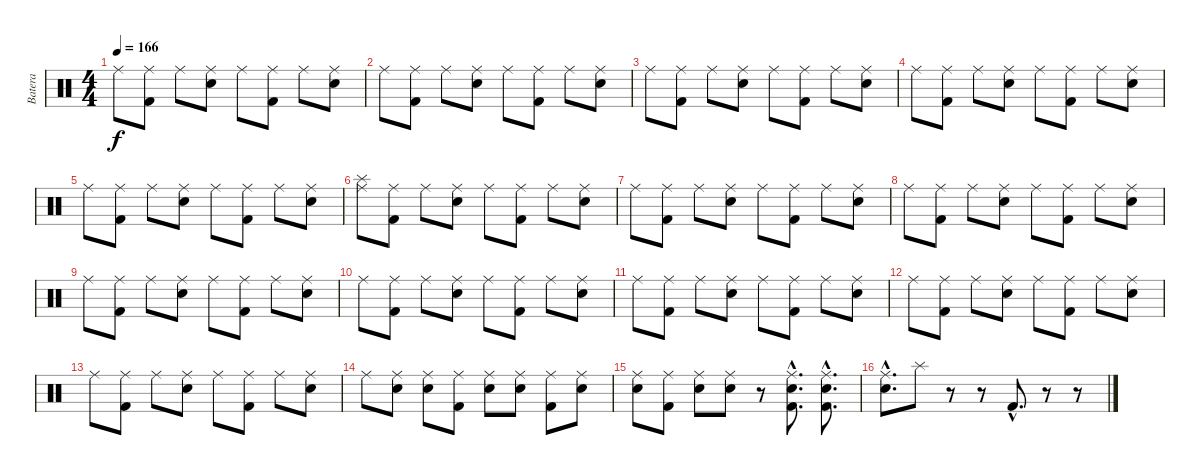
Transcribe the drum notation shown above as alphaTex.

\track ("Batera" "Batera") {instrument percussion}
\staff {score}
\articulation defaults
\ts (4 4)
\tempo 166
\clef neutral
\ks c "Ride (middle)".8{dy f}
("Ride (middle)" "Kick (hit) 2").8 "Ride (middle)".8 ("Ride (middle)" "Snare (hit) 2").8 "Ride (middle)".8 ("Ride (middle)" "Kick (hit) 2").8 "Ride (middle)".8 ("Ride (middle)" "Snare (hit) 2").8 |
"Ride (middle)".8 ("Ride (middle)" "Kick (hit) 2").8 "Ride (middle)".8 ("Ride (middle)" "Snare (hit) 2").8 "Ride (middle)".8 ("Ride (middle)" "Kick (hit) 2").8 "Ride (middle)".8 ("Ride (middle)" "Snare (hit) 2").8 |
"Ride (middle)".8 ("Ride (middle)" "Kick (hit) 2").8 "Ride (middle)".8 ("Ride (middle)" "Snare (hit) 2").8 "Ride (middle)".8 ("Ride (middle)" "Kick (hit) 2").8 "Ride (middle)".8 ("Ride (middle)" "Snare (hit) 2").8 |
"Ride (middle)".8 ("Ride (middle)" "Kick (hit) 2").8 "Ride (middle)".8 ("Ride (middle)" "Snare (hit) 2").8 "Ride (middle)".8 ("Ride (middle)" "Kick (hit) 2").8 "Ride (middle)".8 ("Ride (middle)" "Snare (hit) 2").8 |
"Ride (middle)".8 ("Ride (middle)" "Kick (hit) 2").8 "Ride (middle)".8 ("Ride (middle)" "Snare (hit) 2").8 "Ride (middle)".8 ("Ride (middle)" "Kick (hit) 2").8 "Ride (middle)".8 ("Ride (middle)" "Snare (hit) 2").8 |
("Ride (middle)" "Splash (hit)").8 ("Ride (middle)" "Kick (hit) 2").8 "Ride (middle)".8 ("Ride (middle)" "Snare (hit) 2").8 "Ride (middle)".8 ("Ride (middle)" "Kick (hit) 2").8 "Ride (middle)".8 ("Ride (middle)" "Snare (hit) 2").8 |
"Ride (middle)".8 ("Ride (middle)" "Kick (hit) 2").8 "Ride (middle)".8 ("Ride (middle)" "Snare (hit) 2").8 "Ride (middle)".8 ("Ride (middle)" "Kick (hit) 2").8 "Ride (middle)".8 ("Ride (middle)" "Snare (hit) 2").8 |
"Ride (middle)".8 ("Ride (middle)" "Kick (hit) 2").8 "Ride (middle)".8 ("Ride (middle)" "Snare (hit) 2").8 "Ride (middle)".8 ("Ride (middle)" "Kick (hit) 2").8 "Ride (middle)".8 ("Ride (middle)" "Snare (hit) 2").8 |
"Ride (middle)".8 ("Ride (middle)" "Kick (hit) 2").8 "Ride (middle)".8 ("Ride (middle)" "Snare (hit) 2").8 "Ride (middle)".8 ("Ride (middle)" "Kick (hit) 2").8 "Ride (middle)".8 ("Ride (middle)" "Snare (hit) 2").8 |
"Ride (middle)".8 ("Ride (middle)" "Kick (hit) 2").8 "Ride (middle)".8 ("Ride (middle)" "Snare (hit) 2").8 "Ride (middle)".8 ("Ride (middle)" "Kick (hit) 2").8 "Ride (middle)".8 ("Ride (middle)" "Snare (hit) 2").8 |
"Ride (middle)".8 ("Ride (middle)" "Kick (hit) 2").8 "Ride (middle)".8 ("Ride (middle)" "Snare (hit) 2").8 "Ride (middle)".8 ("Ride (middle)" "Kick (hit) 2").8 "Ride (middle)".8 ("Ride (middle)" "Snare (hit) 2").8 |
"Ride (middle)".8 ("Ride (middle)" "Kick (hit) 2").8 "Ride (middle)".8 ("Ride (middle)" "Snare (hit) 2").8 "Ride (middle)".8 ("Ride (middle)" "Kick (hit) 2").8 "Ride (middle)".8 ("Ride (middle)" "Snare (hit) 2").8 |
"Ride (middle)".8 ("Ride (middle)" "Kick (hit) 2").8 "Ride (middle)".8 ("Ride (middle)" "Snare (hit) 2").8 "Ride (middle)".8 ("Ride (middle)" "Kick (hit) 2").8 "Ride (middle)".8 ("Ride (middle)" "Snare (hit) 2").8 |
"Ride (middle)".8 ("Ride (middle)" "Snare (hit) 2").8 ("Ride (middle)" "Snare (hit) 2").8 ("Ride (middle)" "Kick (hit) 2").8 ("Ride (middle)" "Snare (hit) 2").8 ("Ride (middle)" "Snare (hit) 2").8 ("Ride (middle)" "Kick (hit) 2").8 ("Ride (middle)" "Snare (hit) 2").8 |
("Ride (middle)" "Snare (hit) 2").8 ("Ride (middle)" "Kick (hit) 2").8 ("Ride (middle)" "Snare (hit) 2").8 ("Ride (middle)" "Snare (hit) 2").8 r.8 ("Ride (middle)"{hac} "Kick (hit) 2"{hac} "Snare (hit) 2"{hac}).8{d} ("Ride (middle)"{hac} "Kick (hit) 2"{hac} "Snare (hit) 2"{hac}).8{d} |
("Ride (middle)"{hac} "Snare (hit) 2"{hac}).8{d} "Splash (hit)".8 r.8 r.8 "Kick (hit) 2"{hac}.8{d} r.8 r.8
